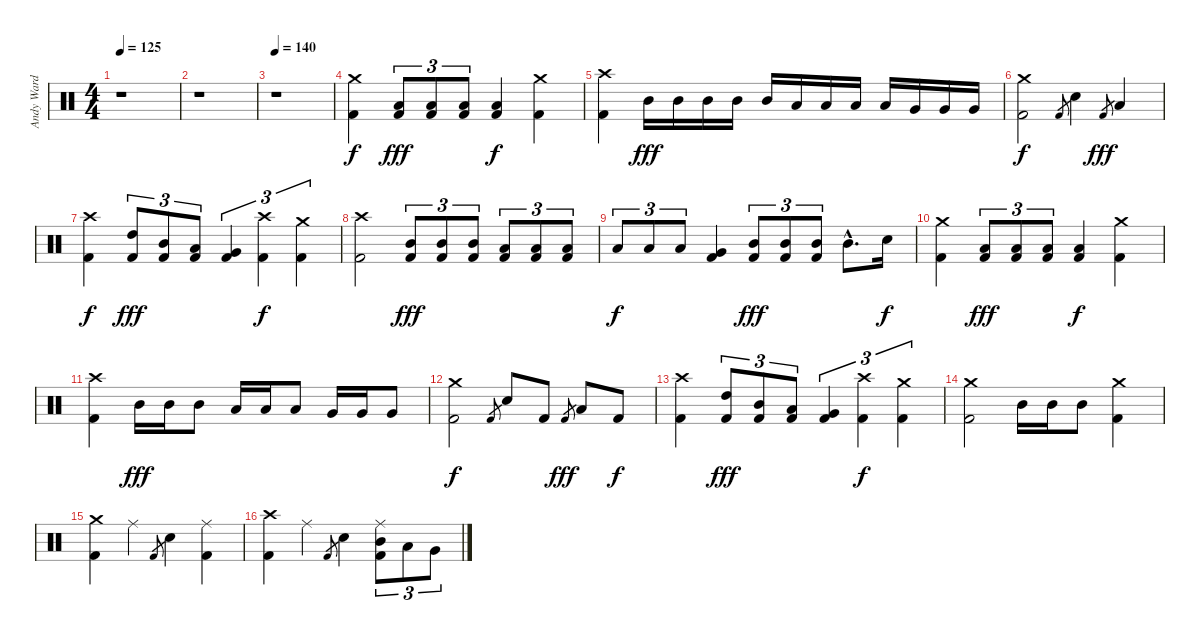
\track ("Andy Ward" "Andy Ward") {instrument percussion}
\staff {score}
\articulation defaults
\ts (4 4)
\tempo 125
\clef neutral
\ks c
r.1{dy f} |
r.1 |
\tempo 140
r.1 |
("Crash medium (hit)" "Kick (hit) 2").4 ("Low Tom (hit)" "Kick (hit) 2").8{tu (3 2) dy fff} ("Low Tom (hit)" "Kick (hit) 2").8{tu (3 2)} ("Low Tom (hit)" "Kick (hit) 2").8{tu (3 2)} ("Low Tom (hit)" "Kick (hit) 2").4{dy f} ("Crash medium (hit)" "Kick (hit) 2").4 |
("Crash high (hit)" "Kick (hit) 2").4 "Mid Tom (hit)".16{dy fff} "Mid Tom (hit)".16 "Mid Tom (hit)".16 "Mid Tom (hit)".16 "Mid Tom (hit)".16 "Low Tom (hit)".16 "Low Tom (hit)".16 "Low Tom (hit)".16 "Low Tom (hit)".16 "Very Low Tom (hit)".16 "Very Low Tom (hit)".16 "Very Low Tom (hit)".16 |
("Crash medium (hit)" "Kick (hit) 2").2{dy f} "Kick (hit) 2".8{gr} "Snare (hit) 2".4 "Kick (hit) 2".8{gr dy fff} "Low Tom (hit)".4 |
("Crash high (hit)" "Kick (hit) 2").4{dy f} ("High Tom (hit)" "Kick (hit) 2").8{tu (3 2) dy fff} ("Mid Tom (hit)" "Kick (hit) 2").8{tu (3 2)} ("Low Tom (hit)" "Kick (hit) 2").8{tu (3 2)} ("Very Low Tom (hit)" "Kick (hit) 2").4{tu (3 2)} ("Crash high (hit)" "Kick (hit) 2").4{tu (3 2) dy f} ("Crash medium (hit)" "Kick (hit) 2").4{tu (3 2)} |
("Crash high (hit)" "Kick (hit) 2").2 ("Mid Tom (hit)" "Kick (hit) 2").8{tu (3 2) dy fff} ("Mid Tom (hit)" "Kick (hit) 2").8{tu (3 2)} ("Mid Tom (hit)" "Kick (hit) 2").8{tu (3 2)} ("Low Tom (hit)" "Kick (hit) 2").8{tu (3 2)} ("Low Tom (hit)" "Kick (hit) 2").8{tu (3 2)} ("Low Tom (hit)" "Kick (hit) 2").8{tu (3 2)} |
"Low Tom (hit)".8{tu (3 2) dy f} "Low Tom (hit)".8{tu (3 2)} "Low Tom (hit)".8{tu (3 2)} ("Very Low Tom (hit)" "Kick (hit) 2").4 ("Mid Tom (hit)" "Kick (hit) 2").8{tu (3 2) dy fff} ("Mid Tom (hit)" "Kick (hit) 2").8{tu (3 2)} ("Mid Tom (hit)" "Kick (hit) 2").8{tu (3 2)} "Mid Tom (hit)"{hac}.8{d} "Snare (hit) 2".16{dy f} |
("Crash medium (hit)" "Kick (hit) 2").4 ("Low Tom (hit)" "Kick (hit) 2").8{tu (3 2) dy fff} ("Low Tom (hit)" "Kick (hit) 2").8{tu (3 2)} ("Low Tom (hit)" "Kick (hit) 2").8{tu (3 2)} ("Low Tom (hit)" "Kick (hit) 2").4{dy f} ("Crash medium (hit)" "Kick (hit) 2").4 |
("Crash high (hit)" "Kick (hit) 2").4 "Mid Tom (hit)".16{dy fff} "Mid Tom (hit)".16 "Mid Tom (hit)".8 "Low Tom (hit)".16 "Low Tom (hit)".16 "Low Tom (hit)".8 "Very Low Tom (hit)".16 "Very Low Tom (hit)".16 "Very Low Tom (hit)".8 |
("Crash medium (hit)" "Kick (hit) 2").2{dy f} "Kick (hit) 2".8{gr} "Snare (hit) 2".8 "Kick (hit) 2".8 "Kick (hit) 2".8{gr dy fff} "Low Floor Tom (hit)".8 "Kick (hit) 2".8{dy f} |
("Crash high (hit)" "Kick (hit) 2").4 ("High Tom (hit)" "Kick (hit) 2").8{tu (3 2) dy fff} ("Mid Tom (hit)" "Kick (hit) 2").8{tu (3 2)} ("Low Tom (hit)" "Kick (hit) 2").8{tu (3 2)} ("Very Low Tom (hit)" "Kick (hit) 2").4{tu (3 2)} ("Crash high (hit)" "Kick (hit) 2").4{tu (3 2) dy f} ("Crash medium (hit)" "Kick (hit) 2").4{tu (3 2)} |
("Crash medium (hit)" "Kick (hit) 2").2 "Mid Tom (hit)".16 "Mid Tom (hit)".16 "Mid Tom (hit)".8 ("Crash medium (hit)" "Kick (hit) 2").4 |
("Crash medium (hit)" "Kick (hit) 2").4 "Ride (middle)".4 "Kick (hit) 2".8{gr} "Snare (hit) 2".4 ("Ride (middle)" "Kick (hit) 2").4 |
("Crash high (hit)" "Kick (hit) 2").4 "Ride (middle)".4 "Kick (hit) 2".8{gr} "Snare (hit) 2".4 ("Ride (middle)" "Mid Tom (hit)" "Kick (hit) 2").8{tu (3 2)} "Low Tom (hit)".8{tu (3 2)} "Very Low Tom (hit)".8{tu (3 2)}
